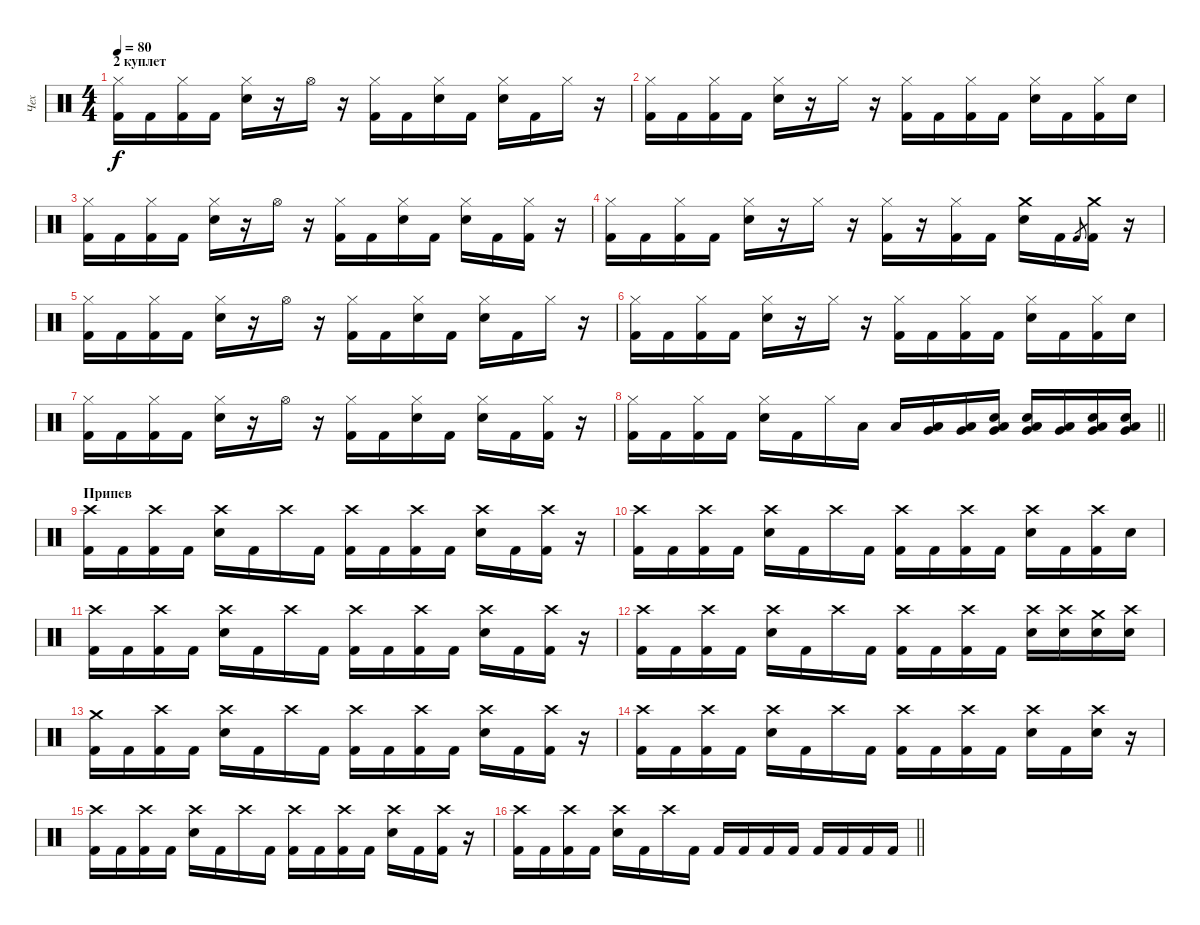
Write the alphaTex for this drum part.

\track ("Чех" "Чех") {instrument percussion}
\staff {score}
\articulation defaults
\ts (4 4)
\section ("" "2 куплет")
\tempo 80
\clef neutral
\ks c
("Hi-Hat (closed)" "Kick (hit) 2").16{dy f} "Kick (hit) 2".16 ("Hi-Hat (closed)" "Kick (hit) 2").16 "Kick (hit) 2".16 ("Hi-Hat (closed)" "Snare (hit) 2").16 r.16 "Hi-Hat (open)".16 r.16 ("Hi-Hat (closed)" "Kick (hit) 2").16 "Kick (hit) 2".16 ("Hi-Hat (closed)" "Snare (hit) 2").16 "Kick (hit) 2".16 ("Hi-Hat (closed)" "Snare (hit) 2").16 "Kick (hit) 2".16 "Hi-Hat (closed)".16 r.16 |
("Hi-Hat (closed)" "Kick (hit) 2").16 "Kick (hit) 2".16 ("Hi-Hat (closed)" "Kick (hit) 2").16 "Kick (hit) 2".16 ("Hi-Hat (closed)" "Snare (hit) 2").16 r.16 "Hi-Hat (closed)".16 r.16 ("Hi-Hat (closed)" "Kick (hit) 2").16 "Kick (hit) 2".16 ("Hi-Hat (closed)" "Kick (hit) 2").16 "Kick (hit) 2".16 ("Hi-Hat (closed)" "Snare (hit) 2").16 "Kick (hit) 2".16 ("Hi-Hat (closed)" "Kick (hit) 2").16 "Snare (hit) 2".16 |
("Hi-Hat (closed)" "Kick (hit) 2").16 "Kick (hit) 2".16 ("Hi-Hat (closed)" "Kick (hit) 2").16 "Kick (hit) 2".16 ("Hi-Hat (closed)" "Snare (hit) 2").16 r.16 "Hi-Hat (open)".16 r.16 ("Hi-Hat (closed)" "Kick (hit) 2").16 "Kick (hit) 2".16 ("Hi-Hat (closed)" "Snare (hit) 2").16 "Kick (hit) 2".16 ("Hi-Hat (closed)" "Snare (hit) 2").16 "Kick (hit) 2".16 ("Hi-Hat (closed)" "Kick (hit) 2").16 r.16 |
("Hi-Hat (closed)" "Kick (hit) 2").16 "Kick (hit) 2".16 ("Hi-Hat (closed)" "Kick (hit) 2").16 "Kick (hit) 2".16 ("Hi-Hat (closed)" "Snare (hit) 2").16 r.16 "Hi-Hat (closed)".16 r.16 ("Hi-Hat (closed)" "Kick (hit) 2").16 r.16 ("Hi-Hat (closed)" "Kick (hit) 2").16 "Kick (hit) 2".16 ("Crash medium (hit)" "Snare (hit) 2").16 "Kick (hit) 2".16 "Kick (hit) 2".8{gr} ("Crash medium (hit)" "Kick (hit) 2").16 r.16 |
("Hi-Hat (closed)" "Kick (hit) 2").16 "Kick (hit) 2".16 ("Hi-Hat (closed)" "Kick (hit) 2").16 "Kick (hit) 2".16 ("Hi-Hat (closed)" "Snare (hit) 2").16 r.16 "Hi-Hat (open)".16 r.16 ("Hi-Hat (closed)" "Kick (hit) 2").16 "Kick (hit) 2".16 ("Hi-Hat (closed)" "Snare (hit) 2").16 "Kick (hit) 2".16 ("Hi-Hat (closed)" "Snare (hit) 2").16 "Kick (hit) 2".16 "Hi-Hat (closed)".16 r.16 |
("Hi-Hat (closed)" "Kick (hit) 2").16 "Kick (hit) 2".16 ("Hi-Hat (closed)" "Kick (hit) 2").16 "Kick (hit) 2".16 ("Hi-Hat (closed)" "Snare (hit) 2").16 r.16 "Hi-Hat (closed)".16 r.16 ("Hi-Hat (closed)" "Kick (hit) 2").16 "Kick (hit) 2".16 ("Hi-Hat (closed)" "Kick (hit) 2").16 "Kick (hit) 2".16 ("Hi-Hat (closed)" "Snare (hit) 2").16 "Kick (hit) 2".16 ("Hi-Hat (closed)" "Kick (hit) 2").16 "Snare (hit) 2".16 |
("Hi-Hat (closed)" "Kick (hit) 2").16 "Kick (hit) 2".16 ("Hi-Hat (closed)" "Kick (hit) 2").16 "Kick (hit) 2".16 ("Hi-Hat (closed)" "Snare (hit) 2").16 r.16 "Hi-Hat (open)".16 r.16 ("Hi-Hat (closed)" "Kick (hit) 2").16 "Kick (hit) 2".16 ("Hi-Hat (closed)" "Snare (hit) 2").16 "Kick (hit) 2".16 ("Hi-Hat (closed)" "Snare (hit) 2").16 "Kick (hit) 2".16 ("Hi-Hat (closed)" "Kick (hit) 2").16 r.16 |
\barLineRight lightlight
("Hi-Hat (closed)" "Kick (hit) 2").16 "Kick (hit) 2".16 ("Hi-Hat (closed)" "Kick (hit) 2").16 "Kick (hit) 2".16 ("Hi-Hat (closed)" "Snare (hit) 2").16 "Kick (hit) 2".16 "Hi-Hat (closed)".16 "Low Tom (hit)".16 "Low Tom (hit)".16 ("Low Tom (hit)" "Very Low Tom (hit)").16 ("Low Tom (hit)" "Very Low Tom (hit)").16 ("Low Tom (hit)" "Very Low Tom (hit)" "Snare (hit) 2").16 ("Low Tom (hit)" "Very Low Tom (hit)" "Snare (hit) 2").16 ("Low Tom (hit)" "Very Low Tom (hit)").16 ("Low Tom (hit)" "Very Low Tom (hit)" "Snare (hit) 2").16 ("Low Tom (hit)" "Very Low Tom (hit)" "Snare (hit) 2").16 |
\section ("" "Припев")
("Crash high (hit)" "Kick (hit) 2").16 "Kick (hit) 2".16 ("Crash high (hit)" "Kick (hit) 2").16 "Kick (hit) 2".16 ("Crash high (hit)" "Snare (hit) 2").16 "Kick (hit) 2".16 "Crash high (hit)".16 "Kick (hit) 2".16 ("Crash high (hit)" "Kick (hit) 2").16 "Kick (hit) 2".16 ("Crash high (hit)" "Kick (hit) 2").16 "Kick (hit) 2".16 ("Crash high (hit)" "Snare (hit) 2").16 "Kick (hit) 2".16 ("Crash high (hit)" "Kick (hit) 2").16 r.16 |
("Crash high (hit)" "Kick (hit) 2").16 "Kick (hit) 2".16 ("Crash high (hit)" "Kick (hit) 2").16 "Kick (hit) 2".16 ("Crash high (hit)" "Snare (hit) 2").16 "Kick (hit) 2".16 "Crash high (hit)".16 "Kick (hit) 2".16 ("Crash high (hit)" "Kick (hit) 2").16 "Kick (hit) 2".16 ("Crash high (hit)" "Kick (hit) 2").16 "Kick (hit) 2".16 ("Crash high (hit)" "Snare (hit) 2").16 "Kick (hit) 2".16 ("Crash high (hit)" "Kick (hit) 2").16 "Snare (hit) 2".16 |
("Crash high (hit)" "Kick (hit) 2").16 "Kick (hit) 2".16 ("Crash high (hit)" "Kick (hit) 2").16 "Kick (hit) 2".16 ("Crash high (hit)" "Snare (hit) 2").16 "Kick (hit) 2".16 "Crash high (hit)".16 "Kick (hit) 2".16 ("Crash high (hit)" "Kick (hit) 2").16 "Kick (hit) 2".16 ("Crash high (hit)" "Kick (hit) 2").16 "Kick (hit) 2".16 ("Crash high (hit)" "Snare (hit) 2").16 "Kick (hit) 2".16 ("Crash high (hit)" "Kick (hit) 2").16 r.16 |
("Crash high (hit)" "Kick (hit) 2").16 "Kick (hit) 2".16 ("Crash high (hit)" "Kick (hit) 2").16 "Kick (hit) 2".16 ("Crash high (hit)" "Snare (hit) 2").16 "Kick (hit) 2".16 "Crash high (hit)".16 "Kick (hit) 2".16 ("Crash high (hit)" "Kick (hit) 2").16 "Kick (hit) 2".16 ("Crash high (hit)" "Kick (hit) 2").16 "Kick (hit) 2".16 ("Crash high (hit)" "Snare (hit) 2").16 ("Crash high (hit)" "Snare (hit) 2").16 ("Crash medium (hit)" "Snare (hit) 2").16 ("Crash high (hit)" "Snare (hit) 2").16 |
("Crash medium (hit)" "Kick (hit) 2").16 "Kick (hit) 2".16 ("Crash high (hit)" "Kick (hit) 2").16 "Kick (hit) 2".16 ("Crash high (hit)" "Snare (hit) 2").16 "Kick (hit) 2".16 "Crash high (hit)".16 "Kick (hit) 2".16 ("Crash high (hit)" "Kick (hit) 2").16 "Kick (hit) 2".16 ("Crash high (hit)" "Kick (hit) 2").16 "Kick (hit) 2".16 ("Crash high (hit)" "Snare (hit) 2").16 "Kick (hit) 2".16 ("Crash high (hit)" "Kick (hit) 2").16 r.16 |
("Crash high (hit)" "Kick (hit) 2").16 "Kick (hit) 2".16 ("Crash high (hit)" "Kick (hit) 2").16 "Kick (hit) 2".16 ("Crash high (hit)" "Snare (hit) 2").16 "Kick (hit) 2".16 "Crash high (hit)".16 "Kick (hit) 2".16 ("Crash high (hit)" "Kick (hit) 2").16 "Kick (hit) 2".16 ("Crash high (hit)" "Kick (hit) 2").16 "Kick (hit) 2".16 ("Crash high (hit)" "Snare (hit) 2").16 "Kick (hit) 2".16 ("Crash high (hit)" "Snare (hit) 2").16 r.16 |
("Crash high (hit)" "Kick (hit) 2").16 "Kick (hit) 2".16 ("Crash high (hit)" "Kick (hit) 2").16 "Kick (hit) 2".16 ("Crash high (hit)" "Snare (hit) 2").16 "Kick (hit) 2".16 "Crash high (hit)".16 "Kick (hit) 2".16 ("Crash high (hit)" "Kick (hit) 2").16 "Kick (hit) 2".16 ("Crash high (hit)" "Kick (hit) 2").16 "Kick (hit) 2".16 ("Crash high (hit)" "Snare (hit) 2").16 "Kick (hit) 2".16 ("Crash high (hit)" "Kick (hit) 2").16 r.16 |
\barLineRight lightlight
("Crash high (hit)" "Kick (hit) 2").16 "Kick (hit) 2".16 ("Crash high (hit)" "Kick (hit) 2").16 "Kick (hit) 2".16 ("Crash high (hit)" "Snare (hit) 2").16 "Kick (hit) 2".16 "Crash high (hit)".16 "Kick (hit) 2".16 "Kick (hit) 2".16 "Kick (hit) 2".16 "Kick (hit) 2".16 "Kick (hit) 2".16 "Kick (hit) 2".16 "Kick (hit) 2".16 "Kick (hit) 2".16 "Kick (hit) 2".16
